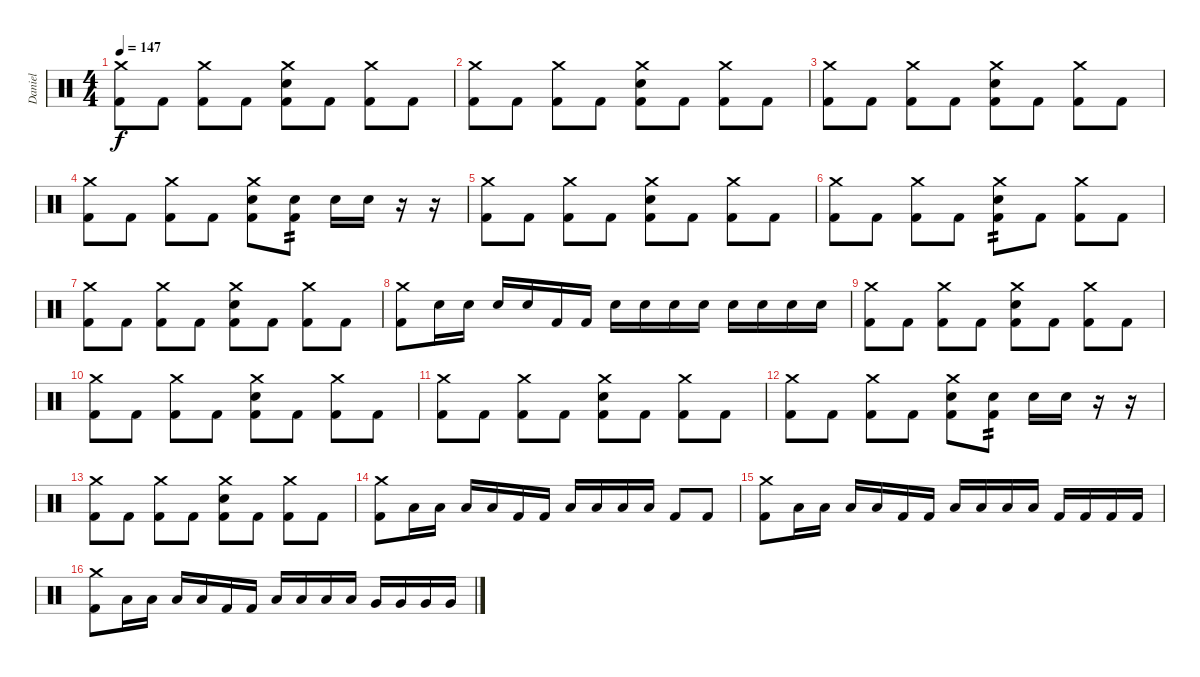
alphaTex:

\track ("Daniel" "Daniel") {instrument percussion}
\staff {score}
\articulation defaults
\ts (4 4)
\tempo 147
\clef neutral
\ks c
("Crash medium (hit)" "Kick (hit) 2").8{dy f} "Kick (hit) 2".8 ("Crash medium (hit)" "Kick (hit) 2").8 "Kick (hit) 2".8 ("Crash medium (hit)" "Electric Snare (hit)" "Kick (hit) 2").8 "Kick (hit) 2".8 ("Crash medium (hit)" "Kick (hit) 2").8 "Kick (hit) 2".8 |
("Crash medium (hit)" "Kick (hit) 2").8 "Kick (hit) 2".8 ("Crash medium (hit)" "Kick (hit) 2").8 "Kick (hit) 2".8 ("Crash medium (hit)" "Electric Snare (hit)" "Kick (hit) 2").8 "Kick (hit) 2".8 ("Crash medium (hit)" "Kick (hit) 2").8 "Kick (hit) 2".8 |
("Crash medium (hit)" "Kick (hit) 2").8 "Kick (hit) 2".8 ("Crash medium (hit)" "Kick (hit) 2").8 "Kick (hit) 2".8 ("Crash medium (hit)" "Electric Snare (hit)" "Kick (hit) 2").8 "Kick (hit) 2".8 ("Crash medium (hit)" "Kick (hit) 2").8 "Kick (hit) 2".8 |
("Crash medium (hit)" "Kick (hit) 2").8 "Kick (hit) 2".8 ("Crash medium (hit)" "Kick (hit) 2").8 "Kick (hit) 2".8 ("Crash medium (hit)" "Electric Snare (hit)" "Kick (hit) 2").8 ("Electric Snare (hit)" "Kick (hit) 2").8{tp 2} "Electric Snare (hit)".16 "Electric Snare (hit)".16 r.16 r.16 |
("Crash medium (hit)" "Kick (hit) 2").8 "Kick (hit) 2".8 ("Crash medium (hit)" "Kick (hit) 2").8 "Kick (hit) 2".8 ("Crash medium (hit)" "Electric Snare (hit)" "Kick (hit) 2").8 "Kick (hit) 2".8 ("Crash medium (hit)" "Kick (hit) 2").8 "Kick (hit) 2".8 |
("Crash medium (hit)" "Kick (hit) 2").8 "Kick (hit) 2".8 ("Crash medium (hit)" "Kick (hit) 2").8 "Kick (hit) 2".8 ("Crash medium (hit)" "Electric Snare (hit)" "Kick (hit) 2").8{tp 2} "Kick (hit) 2".8 ("Crash medium (hit)" "Kick (hit) 2").8 "Kick (hit) 2".8 |
("Crash medium (hit)" "Kick (hit) 2").8 "Kick (hit) 2".8 ("Crash medium (hit)" "Kick (hit) 2").8 "Kick (hit) 2".8 ("Crash medium (hit)" "Electric Snare (hit)" "Kick (hit) 2").8 "Kick (hit) 2".8 ("Crash medium (hit)" "Kick (hit) 2").8 "Kick (hit) 2".8 |
("Crash medium (hit)" "Kick (hit) 2").8 "Electric Snare (hit)".16 "Electric Snare (hit)".16 "Electric Snare (hit)".16 "Electric Snare (hit)".16 "Kick (hit) 2".16 "Kick (hit) 2".16 "Electric Snare (hit)".16 "Electric Snare (hit)".16 "Electric Snare (hit)".16 "Electric Snare (hit)".16 "Electric Snare (hit)".16 "Electric Snare (hit)".16 "Electric Snare (hit)".16 "Electric Snare (hit)".16 |
("Crash medium (hit)" "Kick (hit) 2").8 "Kick (hit) 2".8 ("Crash medium (hit)" "Kick (hit) 2").8 "Kick (hit) 2".8 ("Crash medium (hit)" "Electric Snare (hit)" "Kick (hit) 2").8 "Kick (hit) 2".8 ("Crash medium (hit)" "Kick (hit) 2").8 "Kick (hit) 2".8 |
("Crash medium (hit)" "Kick (hit) 2").8 "Kick (hit) 2".8 ("Crash medium (hit)" "Kick (hit) 2").8 "Kick (hit) 2".8 ("Crash medium (hit)" "Electric Snare (hit)" "Kick (hit) 2").8 "Kick (hit) 2".8 ("Crash medium (hit)" "Kick (hit) 2").8 "Kick (hit) 2".8 |
("Crash medium (hit)" "Kick (hit) 2").8 "Kick (hit) 2".8 ("Crash medium (hit)" "Kick (hit) 2").8 "Kick (hit) 2".8 ("Crash medium (hit)" "Electric Snare (hit)" "Kick (hit) 2").8 "Kick (hit) 2".8 ("Crash medium (hit)" "Kick (hit) 2").8 "Kick (hit) 2".8 |
("Crash medium (hit)" "Kick (hit) 2").8 "Kick (hit) 2".8 ("Crash medium (hit)" "Kick (hit) 2").8 "Kick (hit) 2".8 ("Crash medium (hit)" "Electric Snare (hit)" "Kick (hit) 2").8 ("Electric Snare (hit)" "Kick (hit) 2").8{tp 2} "Electric Snare (hit)".16 "Electric Snare (hit)".16 r.16 r.16 |
("Crash medium (hit)" "Kick (hit) 2").8 "Kick (hit) 2".8 ("Crash medium (hit)" "Kick (hit) 2").8 "Kick (hit) 2".8 ("Crash medium (hit)" "Electric Snare (hit)" "Kick (hit) 2").8 "Kick (hit) 2".8 ("Crash medium (hit)" "Kick (hit) 2").8 "Kick (hit) 2".8 |
("Crash medium (hit)" "Kick (hit) 2").8 "Low Tom (hit)".16 "Low Tom (hit)".16 "Low Tom (hit)".16 "Low Tom (hit)".16 "Kick (hit) 2".16 "Kick (hit) 2".16 "Low Tom (hit)".16 "Low Tom (hit)".16 "Low Tom (hit)".16 "Low Tom (hit)".16 "Kick (hit) 2".8 "Kick (hit) 2".8 |
("Crash medium (hit)" "Kick (hit) 2").8 "Low Tom (hit)".16 "Low Tom (hit)".16 "Low Tom (hit)".16 "Low Tom (hit)".16 "Kick (hit) 2".16 "Kick (hit) 2".16 "Low Tom (hit)".16 "Low Tom (hit)".16 "Low Tom (hit)".16 "Low Tom (hit)".16 "Kick (hit) 2".16 "Kick (hit) 2".16 "Kick (hit) 2".16 "Kick (hit) 2".16 |
("Crash medium (hit)" "Kick (hit) 2").8 "Low Tom (hit)".16 "Low Tom (hit)".16 "Low Tom (hit)".16 "Low Tom (hit)".16 "Kick (hit) 2".16 "Kick (hit) 2".16 "Low Tom (hit)".16 "Low Tom (hit)".16 "Low Tom (hit)".16 "Low Tom (hit)".16 "Very Low Tom (hit)".16 "Very Low Tom (hit)".16 "Very Low Tom (hit)".16 "Very Low Tom (hit)".16
